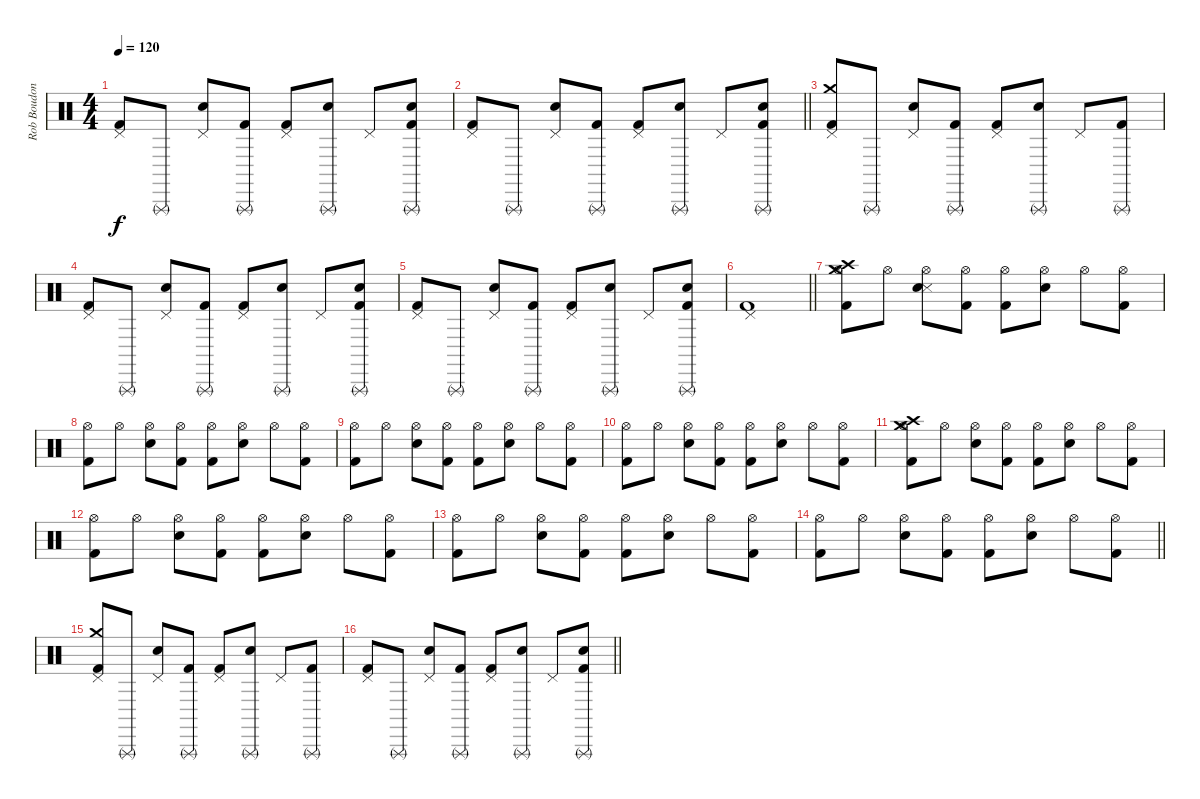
\track ("Rob Boudon [Drums]" "Rob Boudon") {instrument percussion}
\staff {score}
\articulation defaults
\ts (4 4)
\tempo 120
\clef neutral
\ks c
("Pedal Hi-Hat (hit)" "Kick (hit) 2").8{dy f} "Triangle (rnute)".8 ("Pedal Hi-Hat (hit)" "Snare (hit) 2").8 ("Triangle (rnute)" "Kick (hit) 2").8 ("Pedal Hi-Hat (hit)" "Kick (hit) 2").8 ("Triangle (rnute)" "Snare (hit) 2").8 "Pedal Hi-Hat (hit)".8 ("Triangle (rnute)" "Snare (hit) 2" "Kick (hit) 2").8 |
\barLineRight lightlight
("Pedal Hi-Hat (hit)" "Kick (hit) 2").8 "Triangle (rnute)".8 ("Pedal Hi-Hat (hit)" "Snare (hit) 2").8 ("Triangle (rnute)" "Kick (hit) 2").8 ("Pedal Hi-Hat (hit)" "Kick (hit) 2").8 ("Triangle (rnute)" "Snare (hit) 2").8 "Pedal Hi-Hat (hit)".8 ("Triangle (rnute)" "Snare (hit) 2" "Kick (hit) 2").8 |
("Crash medium (hit)" "Pedal Hi-Hat (hit)" "Kick (hit) 2").8 "Triangle (rnute)".8 ("Pedal Hi-Hat (hit)" "Snare (hit) 2").8 ("Triangle (rnute)" "Kick (hit) 2").8 ("Pedal Hi-Hat (hit)" "Kick (hit) 2").8 ("Triangle (rnute)" "Snare (hit) 2").8 "Pedal Hi-Hat (hit)".8 ("Triangle (rnute)" "Kick (hit) 2").8 |
("Pedal Hi-Hat (hit)" "Kick (hit) 2").8 "Triangle (rnute)".8 ("Pedal Hi-Hat (hit)" "Snare (hit) 2").8 ("Triangle (rnute)" "Kick (hit) 2").8 ("Pedal Hi-Hat (hit)" "Kick (hit) 2").8 ("Triangle (rnute)" "Snare (hit) 2").8 "Pedal Hi-Hat (hit)".8 ("Triangle (rnute)" "Snare (hit) 2" "Kick (hit) 2").8 |
("Pedal Hi-Hat (hit)" "Kick (hit) 2").8 "Triangle (rnute)".8 ("Pedal Hi-Hat (hit)" "Snare (hit) 2").8 ("Triangle (rnute)" "Kick (hit) 2").8 ("Pedal Hi-Hat (hit)" "Kick (hit) 2").8 ("Triangle (rnute)" "Snare (hit) 2").8 "Pedal Hi-Hat (hit)".8 ("Triangle (rnute)" "Snare (hit) 2" "Kick (hit) 2").8 |
\barLineRight lightlight
("Pedal Hi-Hat (hit)" "Kick (hit) 2").1 |
("Crash medium (hit)" "Crash high (hit)" "Hi-Hat (open)" "Kick (hit) 2").8 "Hi-Hat (open)".8 ("Hi-Hat (open)" "Snare (side stick) 3" "Snare (hit) 2").8 ("Hi-Hat (open)" "Kick (hit) 2").8 ("Hi-Hat (open)" "Kick (hit) 2").8 ("Hi-Hat (open)" "Snare (hit) 2").8 "Hi-Hat (open)".8 ("Hi-Hat (open)" "Kick (hit) 2").8 |
("Hi-Hat (open)" "Kick (hit) 2").8 "Hi-Hat (open)".8 ("Hi-Hat (open)" "Snare (hit) 2").8 ("Hi-Hat (open)" "Kick (hit) 2").8 ("Hi-Hat (open)" "Kick (hit) 2").8 ("Hi-Hat (open)" "Snare (hit) 2").8 "Hi-Hat (open)".8 ("Hi-Hat (open)" "Kick (hit) 2").8 |
("Hi-Hat (open)" "Kick (hit) 2").8 "Hi-Hat (open)".8 ("Hi-Hat (open)" "Snare (hit) 2").8 ("Hi-Hat (open)" "Kick (hit) 2").8 ("Hi-Hat (open)" "Kick (hit) 2").8 ("Hi-Hat (open)" "Snare (hit) 2").8 "Hi-Hat (open)".8 ("Hi-Hat (open)" "Kick (hit) 2").8 |
("Hi-Hat (open)" "Kick (hit) 2").8 "Hi-Hat (open)".8 ("Hi-Hat (open)" "Snare (hit) 2").8 ("Hi-Hat (open)" "Kick (hit) 2").8 ("Hi-Hat (open)" "Kick (hit) 2").8 ("Hi-Hat (open)" "Snare (hit) 2").8 "Hi-Hat (open)".8 ("Hi-Hat (open)" "Kick (hit) 2").8 |
("Crash medium (hit)" "Crash high (hit)" "Hi-Hat (open)" "Kick (hit) 2").8 "Hi-Hat (open)".8 ("Hi-Hat (open)" "Snare (hit) 2").8 ("Hi-Hat (open)" "Kick (hit) 2").8 ("Hi-Hat (open)" "Kick (hit) 2").8 ("Hi-Hat (open)" "Snare (hit) 2").8 "Hi-Hat (open)".8 ("Hi-Hat (open)" "Kick (hit) 2").8 |
("Hi-Hat (open)" "Kick (hit) 2").8 "Hi-Hat (open)".8 ("Hi-Hat (open)" "Snare (hit) 2").8 ("Hi-Hat (open)" "Kick (hit) 2").8 ("Hi-Hat (open)" "Kick (hit) 2").8 ("Hi-Hat (open)" "Snare (hit) 2").8 "Hi-Hat (open)".8 ("Hi-Hat (open)" "Kick (hit) 2").8 |
("Hi-Hat (open)" "Kick (hit) 2").8 "Hi-Hat (open)".8 ("Hi-Hat (open)" "Snare (hit) 2").8 ("Hi-Hat (open)" "Kick (hit) 2").8 ("Hi-Hat (open)" "Kick (hit) 2").8 ("Hi-Hat (open)" "Snare (hit) 2").8 "Hi-Hat (open)".8 ("Hi-Hat (open)" "Kick (hit) 2").8 |
\barLineRight lightlight
("Hi-Hat (open)" "Kick (hit) 2").8 "Hi-Hat (open)".8 ("Hi-Hat (open)" "Snare (hit) 2").8 ("Hi-Hat (open)" "Kick (hit) 2").8 ("Hi-Hat (open)" "Kick (hit) 2").8 ("Hi-Hat (open)" "Snare (hit) 2").8 "Hi-Hat (open)".8 ("Hi-Hat (open)" "Kick (hit) 2").8 |
("Crash medium (hit)" "Pedal Hi-Hat (hit)" "Kick (hit) 2").8 "Triangle (rnute)".8 ("Pedal Hi-Hat (hit)" "Snare (hit) 2").8 ("Triangle (rnute)" "Kick (hit) 2").8 ("Pedal Hi-Hat (hit)" "Kick (hit) 2").8 ("Triangle (rnute)" "Snare (hit) 2").8 "Pedal Hi-Hat (hit)".8 ("Triangle (rnute)" "Kick (hit) 2").8 |
\barLineRight lightlight
("Pedal Hi-Hat (hit)" "Kick (hit) 2").8 "Triangle (rnute)".8 ("Pedal Hi-Hat (hit)" "Snare (hit) 2").8 ("Triangle (rnute)" "Kick (hit) 2").8 ("Pedal Hi-Hat (hit)" "Kick (hit) 2").8 ("Triangle (rnute)" "Snare (hit) 2").8 "Pedal Hi-Hat (hit)".8 ("Triangle (rnute)" "Snare (hit) 2" "Kick (hit) 2").8
